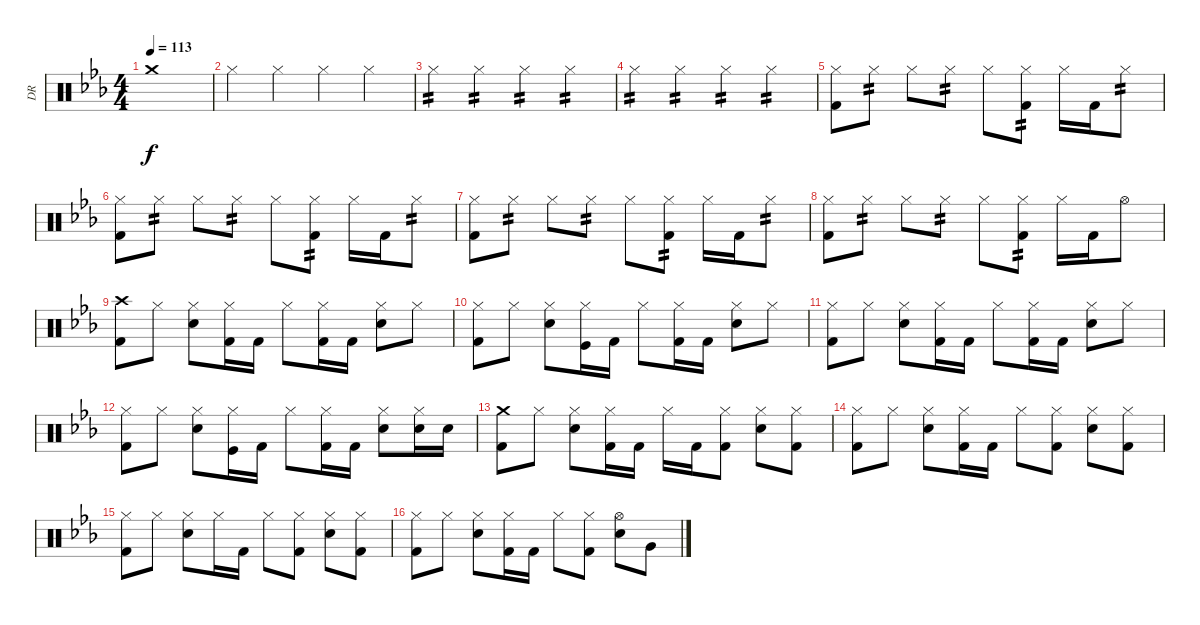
\track ("DR" "DR") {instrument percussion}
\staff {score}
\articulation defaults
\ts (4 4)
\tempo 113
\clef neutral
\ks cminor "Crash medium (hit)".1{dy f}
|
"Hi-Hat (closed)".4 "Hi-Hat (closed)".4 "Hi-Hat (closed)".4 "Hi-Hat (closed)".4 |
"Hi-Hat (closed)".4{tp 2} "Hi-Hat (closed)".4{tp 2} "Hi-Hat (closed)".4{tp 2} "Hi-Hat (closed)".4{tp 2} |
"Hi-Hat (closed)".4{tp 2} "Hi-Hat (closed)".4{tp 2} "Hi-Hat (closed)".4{tp 2} "Hi-Hat (closed)".4{tp 2} |
("Hi-Hat (closed)" "Kick (hit) 2").8 "Hi-Hat (closed)".8{tp 2} "Hi-Hat (closed)".8 "Hi-Hat (closed)".8{tp 2} "Hi-Hat (closed)".8 ("Hi-Hat (closed)" "Kick (hit) 2").8{tp 2} "Hi-Hat (closed)".16 "Kick (hit) 2".16 "Hi-Hat (closed)".8{tp 2} |
("Hi-Hat (closed)" "Kick (hit) 2").8 "Hi-Hat (closed)".8{tp 2} "Hi-Hat (closed)".8 "Hi-Hat (closed)".8{tp 2} "Hi-Hat (closed)".8 ("Hi-Hat (closed)" "Kick (hit) 2").8{tp 2} "Hi-Hat (closed)".16 "Kick (hit) 2".16 "Hi-Hat (closed)".8{tp 2} |
("Hi-Hat (closed)" "Kick (hit) 2").8 "Hi-Hat (closed)".8{tp 2} "Hi-Hat (closed)".8 "Hi-Hat (closed)".8{tp 2} "Hi-Hat (closed)".8 ("Hi-Hat (closed)" "Kick (hit) 2").8{tp 2} "Hi-Hat (closed)".16 "Kick (hit) 2".16 "Hi-Hat (closed)".8{tp 2} |
("Hi-Hat (closed)" "Kick (hit) 2").8 "Hi-Hat (closed)".8{tp 2} "Hi-Hat (closed)".8 "Hi-Hat (closed)".8{tp 2} "Hi-Hat (closed)".8 ("Hi-Hat (closed)" "Kick (hit) 2").8{tp 2} "Hi-Hat (closed)".16 "Kick (hit) 2".16 "Hi-Hat (open)".8 |
("Crash high (hit)" "Kick (hit) 2").8 "Hi-Hat (closed)".8 ("Hi-Hat (closed)" "Electric Snare (hit)").8 ("Hi-Hat (closed)" "Kick (hit) 2").16 "Kick (hit) 2".16 "Hi-Hat (closed)".8 ("Hi-Hat (closed)" "Kick (hit) 2").16 "Kick (hit) 2".16 ("Hi-Hat (closed)" "Electric Snare (hit)").8 "Hi-Hat (closed)".8 |
("Hi-Hat (closed)" "Kick (hit) 2").8 "Hi-Hat (closed)".8 ("Hi-Hat (closed)" "Electric Snare (hit)").8 ("Hi-Hat (closed)" "Kick (hit)").16 "Kick (hit) 2".16 "Hi-Hat (closed)".8 ("Hi-Hat (closed)" "Kick (hit) 2").16 "Kick (hit) 2".16 ("Hi-Hat (closed)" "Electric Snare (hit)").8 "Hi-Hat (closed)".8 |
("Hi-Hat (closed)" "Kick (hit) 2").8 "Hi-Hat (closed)".8 ("Hi-Hat (closed)" "Electric Snare (hit)").8 ("Hi-Hat (closed)" "Kick (hit) 2").16 "Kick (hit) 2".16 "Hi-Hat (closed)".8 ("Hi-Hat (closed)" "Kick (hit) 2").16 "Kick (hit) 2".16 ("Hi-Hat (closed)" "Electric Snare (hit)").8 "Hi-Hat (closed)".8 |
("Hi-Hat (closed)" "Kick (hit) 2").8 "Hi-Hat (closed)".8 ("Hi-Hat (closed)" "Electric Snare (hit)").8 ("Hi-Hat (closed)" "Kick (hit)").16 "Kick (hit) 2".16 "Hi-Hat (closed)".8 ("Hi-Hat (closed)" "Kick (hit) 2").16 "Kick (hit) 2".16 ("Hi-Hat (closed)" "Electric Snare (hit)").8 ("Hi-Hat (closed)" "Electric Snare (hit)").16 "Electric Snare (hit)".16 |
("Crash medium (hit)" "Kick (hit) 2").8 "Hi-Hat (closed)".8 ("Hi-Hat (closed)" "Electric Snare (hit)").8 ("Hi-Hat (closed)" "Kick (hit) 2").16 "Kick (hit) 2".16 "Hi-Hat (closed)".16 "Kick (hit) 2".16 ("Hi-Hat (closed)" "Kick (hit) 2").8 ("Hi-Hat (closed)" "Electric Snare (hit)").8 ("Hi-Hat (closed)" "Kick (hit) 2").8 |
("Hi-Hat (closed)" "Kick (hit) 2").8 "Hi-Hat (closed)".8 ("Hi-Hat (closed)" "Electric Snare (hit)").8 ("Hi-Hat (closed)" "Kick (hit) 2").16 "Kick (hit) 2".16 "Hi-Hat (closed)".8 ("Hi-Hat (closed)" "Kick (hit) 2").8 ("Hi-Hat (closed)" "Electric Snare (hit)").8 ("Hi-Hat (closed)" "Kick (hit) 2").8 |
("Hi-Hat (closed)" "Kick (hit) 2").8 "Hi-Hat (closed)".8 ("Hi-Hat (closed)" "Electric Snare (hit)").8 "Hi-Hat (closed)".16 "Kick (hit) 2".16 "Hi-Hat (closed)".8 ("Hi-Hat (closed)" "Kick (hit) 2").8 ("Hi-Hat (closed)" "Electric Snare (hit)").8 ("Hi-Hat (closed)" "Kick (hit) 2").8 |
("Hi-Hat (closed)" "Kick (hit) 2").8 "Hi-Hat (closed)".8 ("Hi-Hat (closed)" "Electric Snare (hit)").8 ("Hi-Hat (closed)" "Kick (hit) 2").16 "Kick (hit) 2".16 "Hi-Hat (closed)".8 ("Hi-Hat (closed)" "Kick (hit) 2").8 ("Hi-Hat (open)" "Electric Snare (hit)").8 "Very Low Tom (hit)".8
